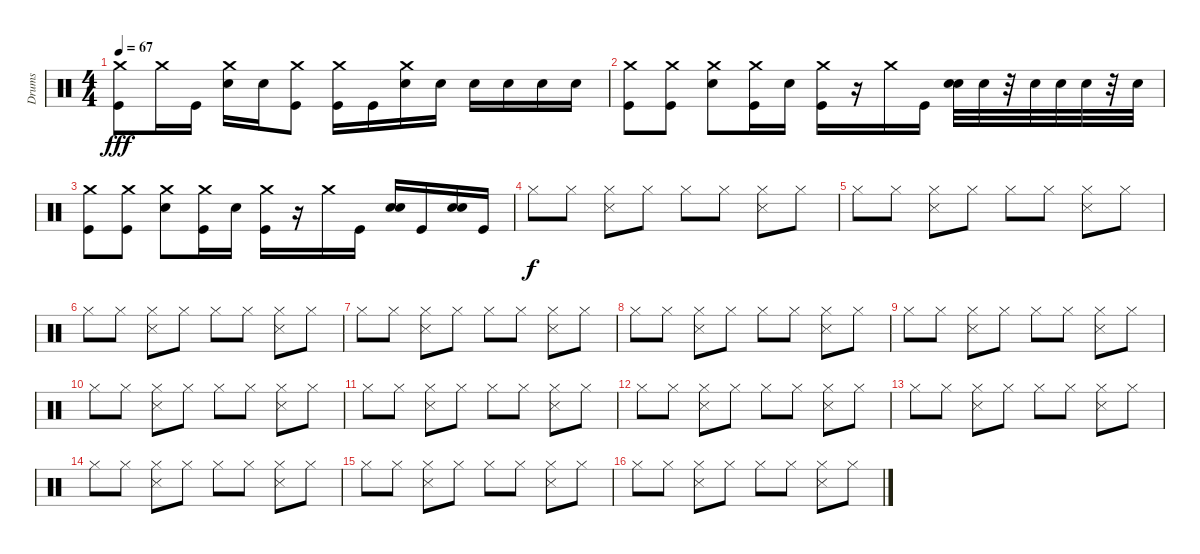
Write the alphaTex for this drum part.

\track ("Drums" "Drums") {instrument percussion}
\staff {score}
\articulation defaults
\ts (4 4)
\tempo 67
\clef neutral
\ks c
("Kick (hit)" "Crash medium (hit)").8{dy fff} "Crash medium (hit)".16 "Kick (hit)".16 ("Crash medium (hit)" "Snare (hit) 2").16 "Snare (hit) 2".16 ("Kick (hit)" "Crash medium (hit)").8 ("Kick (hit)" "Crash medium (hit)").16 "Kick (hit)".16 ("Snare (hit) 2" "Crash medium (hit)").16 "Snare (hit) 2".16 "Snare (hit) 2".16 "Snare (hit) 2".16 "Snare (hit) 2".16 "Snare (hit) 2".16 |
("Crash medium (hit)" "Kick (hit)").8 ("Crash medium (hit)" "Kick (hit)").8 ("Crash medium (hit)" "Snare (hit) 2").8 ("Crash medium (hit)" "Kick (hit)").16 "Snare (hit) 2".16 ("Crash medium (hit)" "Kick (hit)").16 r.16 "Crash medium (hit)".16 "Kick (hit)".16 ("Snare (hit) 2" "Snare (hit) 2").32 "Snare (hit) 2".32 r.32 "Snare (hit) 2".32 "Snare (hit) 2".32 "Snare (hit) 2".32 r.32 "Snare (hit) 2".32 |
("Crash medium (hit)" "Kick (hit)").8 ("Crash medium (hit)" "Kick (hit)").8 ("Snare (hit) 2" "Crash medium (hit)").8 ("Crash medium (hit)" "Kick (hit)").16 "Snare (hit) 2".16 ("Crash medium (hit)" "Kick (hit)").16 r.16 "Crash medium (hit)".16 "Kick (hit)".16 ("Snare (hit) 2" "Snare (hit) 2").16 "Kick (hit)".16 ("Snare (hit) 2" "Snare (hit) 2").16 "Kick (hit)".16 |
"Hi-Hat (closed)".8{dy f} "Hi-Hat (closed)".8 ("Snare (side stick) 3" "Hi-Hat (closed)").8 "Hi-Hat (closed)".8 "Hi-Hat (closed)".8 "Hi-Hat (closed)".8 ("Snare (side stick) 3" "Hi-Hat (closed)").8 "Hi-Hat (closed)".8 |
"Hi-Hat (closed)".8 "Hi-Hat (closed)".8 ("Snare (side stick) 3" "Hi-Hat (closed)").8 "Hi-Hat (closed)".8 "Hi-Hat (closed)".8 "Hi-Hat (closed)".8 ("Snare (side stick) 3" "Hi-Hat (closed)").8 "Hi-Hat (closed)".8 |
"Hi-Hat (closed)".8 "Hi-Hat (closed)".8 ("Snare (side stick) 3" "Hi-Hat (closed)").8 "Hi-Hat (closed)".8 "Hi-Hat (closed)".8 "Hi-Hat (closed)".8 ("Snare (side stick) 3" "Hi-Hat (closed)").8 "Hi-Hat (closed)".8 |
"Hi-Hat (closed)".8 "Hi-Hat (closed)".8 ("Snare (side stick) 3" "Hi-Hat (closed)").8 "Hi-Hat (closed)".8 "Hi-Hat (closed)".8 "Hi-Hat (closed)".8 ("Snare (side stick) 3" "Hi-Hat (closed)").8 "Hi-Hat (closed)".8 |
"Hi-Hat (closed)".8 "Hi-Hat (closed)".8 ("Snare (side stick) 3" "Hi-Hat (closed)").8 "Hi-Hat (closed)".8 "Hi-Hat (closed)".8 "Hi-Hat (closed)".8 ("Snare (side stick) 3" "Hi-Hat (closed)").8 "Hi-Hat (closed)".8 |
"Hi-Hat (closed)".8 "Hi-Hat (closed)".8 ("Snare (side stick) 3" "Hi-Hat (closed)").8 "Hi-Hat (closed)".8 "Hi-Hat (closed)".8 "Hi-Hat (closed)".8 ("Snare (side stick) 3" "Hi-Hat (closed)").8 "Hi-Hat (closed)".8 |
"Hi-Hat (closed)".8 "Hi-Hat (closed)".8 ("Snare (side stick) 3" "Hi-Hat (closed)").8 "Hi-Hat (closed)".8 "Hi-Hat (closed)".8 "Hi-Hat (closed)".8 ("Snare (side stick) 3" "Hi-Hat (closed)").8 "Hi-Hat (closed)".8 |
"Hi-Hat (closed)".8 "Hi-Hat (closed)".8 ("Snare (side stick) 3" "Hi-Hat (closed)").8 "Hi-Hat (closed)".8 "Hi-Hat (closed)".8 "Hi-Hat (closed)".8 ("Snare (side stick) 3" "Hi-Hat (closed)").8 "Hi-Hat (closed)".8 |
"Hi-Hat (closed)".8 "Hi-Hat (closed)".8 ("Snare (side stick) 3" "Hi-Hat (closed)").8 "Hi-Hat (closed)".8 "Hi-Hat (closed)".8 "Hi-Hat (closed)".8 ("Snare (side stick) 3" "Hi-Hat (closed)").8 "Hi-Hat (closed)".8 |
"Hi-Hat (closed)".8 "Hi-Hat (closed)".8 ("Snare (side stick) 3" "Hi-Hat (closed)").8 "Hi-Hat (closed)".8 "Hi-Hat (closed)".8 "Hi-Hat (closed)".8 ("Snare (side stick) 3" "Hi-Hat (closed)").8 "Hi-Hat (closed)".8 |
"Hi-Hat (closed)".8 "Hi-Hat (closed)".8 ("Snare (side stick) 3" "Hi-Hat (closed)").8 "Hi-Hat (closed)".8 "Hi-Hat (closed)".8 "Hi-Hat (closed)".8 ("Snare (side stick) 3" "Hi-Hat (closed)").8 "Hi-Hat (closed)".8 |
"Hi-Hat (closed)".8 "Hi-Hat (closed)".8 ("Snare (side stick) 3" "Hi-Hat (closed)").8 "Hi-Hat (closed)".8 "Hi-Hat (closed)".8 "Hi-Hat (closed)".8 ("Snare (side stick) 3" "Hi-Hat (closed)").8 "Hi-Hat (closed)".8 |
"Hi-Hat (closed)".8 "Hi-Hat (closed)".8 ("Snare (side stick) 3" "Hi-Hat (closed)").8 "Hi-Hat (closed)".8 "Hi-Hat (closed)".8 "Hi-Hat (closed)".8 ("Snare (side stick) 3" "Hi-Hat (closed)").8 "Hi-Hat (closed)".8
